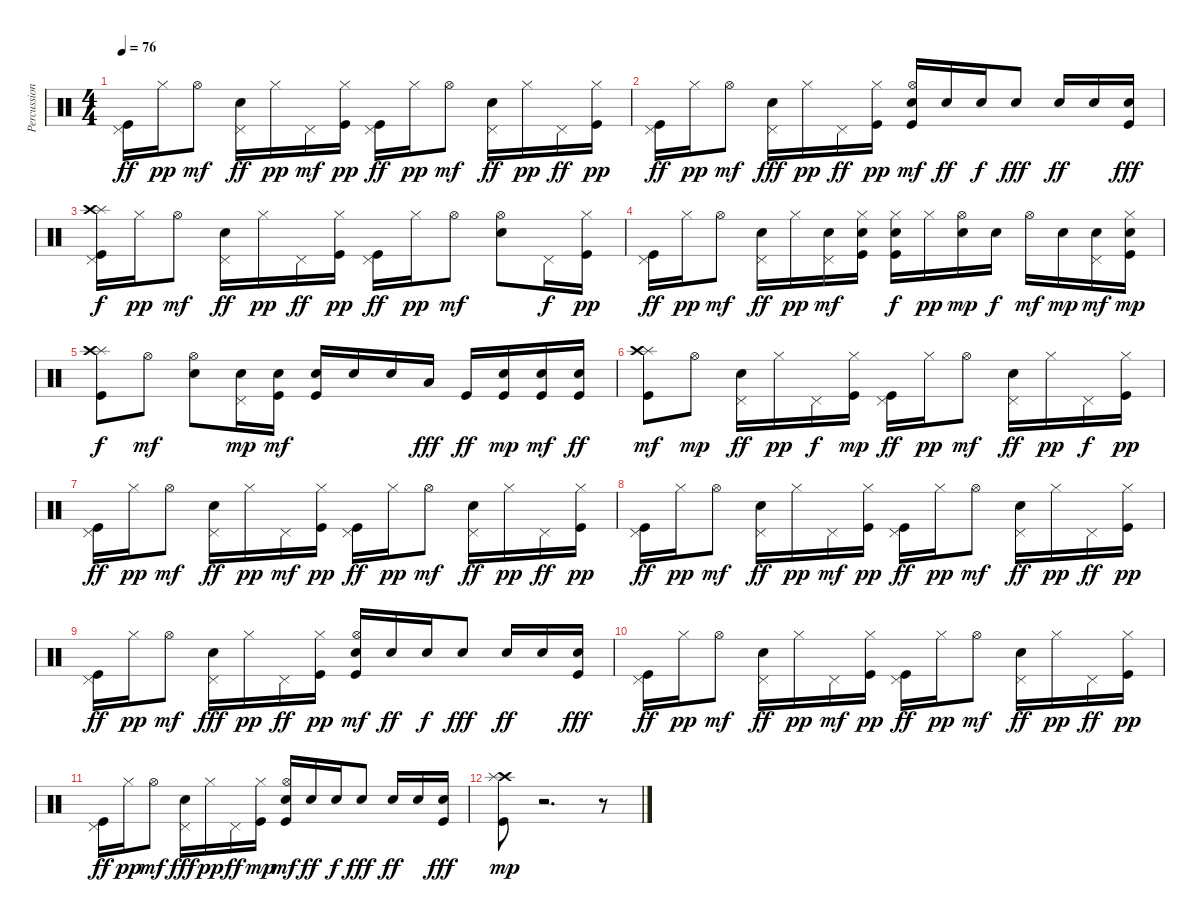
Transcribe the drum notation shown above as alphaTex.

\track ("Percussion" "Percussion") {instrument percussion}
\staff {score}
\articulation defaults
\ts (4 4)
\tempo 76
\clef neutral
\ks c
("Pedal Hi-Hat (hit)" "Kick (hit)").16{dy ff} "Hi-Hat (closed)".16{dy pp} "Hi-Hat (open)".8{dy mf} ("Pedal Hi-Hat (hit)" "Snare (hit) 2").16{dy ff} "Hi-Hat (closed)".16{dy pp} "Pedal Hi-Hat (hit)".16{dy mf} ("Hi-Hat (closed)" "Kick (hit)").16{dy pp} ("Pedal Hi-Hat (hit)" "Kick (hit)").16{dy ff} "Hi-Hat (closed)".16{dy pp} "Hi-Hat (open)".8{dy mf} ("Pedal Hi-Hat (hit)" "Snare (hit) 2").16{dy ff} "Hi-Hat (closed)".16{dy pp} "Pedal Hi-Hat (hit)".16{dy ff} ("Hi-Hat (closed)" "Kick (hit)").16{dy pp} |
("Pedal Hi-Hat (hit)" "Kick (hit)").16{dy ff} "Hi-Hat (closed)".16{dy pp} "Hi-Hat (open)".8{dy mf} ("Pedal Hi-Hat (hit)" "Snare (hit) 2").16{dy fff} "Hi-Hat (closed)".16{dy pp} "Pedal Hi-Hat (hit)".16{dy ff} ("Hi-Hat (closed)" "Kick (hit)").16{dy pp} ("Hi-Hat (open)" "Snare (hit) 2" "Kick (hit)").16{dy mf} "Snare (hit) 2".16{dy ff} "Snare (hit) 2".16{dy f} "Snare (hit) 2".8{dy fff} "Snare (hit) 2".16{dy ff} "Snare (hit) 2".16 ("Snare (hit) 2" "Kick (hit)").16{dy fff} |
("Splash (hit)" "Crash high (hit)" "Pedal Hi-Hat (hit)" "Kick (hit)").16{dy f} "Hi-Hat (closed)".16{dy pp} "Hi-Hat (open)".8{dy mf} ("Pedal Hi-Hat (hit)" "Snare (hit) 2").16{dy ff} "Hi-Hat (closed)".16{dy pp} "Pedal Hi-Hat (hit)".16{dy ff} ("Hi-Hat (closed)" "Kick (hit)").16{dy pp} ("Pedal Hi-Hat (hit)" "Kick (hit)").16{dy ff} "Hi-Hat (closed)".16{dy pp} "Hi-Hat (open)".8{dy mf} ("Hi-Hat (open)" "Snare (hit) 2").8 "Pedal Hi-Hat (hit)".16{dy f} ("Hi-Hat (closed)" "Kick (hit)").16{dy pp} |
("Pedal Hi-Hat (hit)" "Kick (hit)").16{dy ff} "Hi-Hat (closed)".16{dy pp} "Hi-Hat (open)".8{dy mf} ("Pedal Hi-Hat (hit)" "Snare (hit) 2").16{dy ff} "Hi-Hat (closed)".16{dy pp} ("Pedal Hi-Hat (hit)" "Snare (hit) 2").16{dy mf} ("Hi-Hat (closed)" "Snare (hit) 2" "Kick (hit)").16 ("Hi-Hat (closed)" "Snare (hit) 2" "Kick (hit)").16{dy f} "Hi-Hat (closed)".16{dy pp} ("Hi-Hat (open)" "Snare (hit) 2").16{dy mp} "Snare (hit) 2".16{dy f} "Hi-Hat (open)".16{dy mf} "Snare (hit) 2".16{dy mp} ("Pedal Hi-Hat (hit)" "Snare (hit) 2").16{dy mf} ("Hi-Hat (closed)" "Snare (hit) 2" "Kick (hit)").16{dy mp} |
("Splash (hit)" "Crash high (hit)" "Kick (hit)").8{dy f} "Hi-Hat (open)".8{dy mf} ("Hi-Hat (open)" "Snare (hit) 2").8 ("Pedal Hi-Hat (hit)" "Snare (hit) 2").16{dy mp} ("Snare (hit) 2" "Kick (hit)").16{dy mf} ("Snare (hit) 2" "Kick (hit)").16 "Snare (hit) 2".16 "Snare (hit) 2".16 "Low Tom (hit)".16{dy fff} "Kick (hit)".16{dy ff} ("Snare (hit) 2" "Kick (hit)").16{dy mp} ("Snare (hit) 2" "Kick (hit)").16{dy mf} ("Snare (hit) 2" "Kick (hit)").16{dy ff} |
("Splash (hit)" "Crash high (hit)" "Kick (hit)").8{dy mf} "Hi-Hat (open)".8{dy mp} ("Pedal Hi-Hat (hit)" "Snare (hit) 2").16{dy ff} "Hi-Hat (closed)".16{dy pp} "Pedal Hi-Hat (hit)".16{dy f} ("Hi-Hat (closed)" "Kick (hit)").16{dy mp} ("Pedal Hi-Hat (hit)" "Kick (hit)").16{dy ff} "Hi-Hat (closed)".16{dy pp} "Hi-Hat (open)".8{dy mf} ("Pedal Hi-Hat (hit)" "Snare (hit) 2").16{dy ff} "Hi-Hat (closed)".16{dy pp} "Pedal Hi-Hat (hit)".16{dy f} ("Hi-Hat (closed)" "Kick (hit)").16{dy pp} |
("Pedal Hi-Hat (hit)" "Kick (hit)").16{dy ff} "Hi-Hat (closed)".16{dy pp} "Hi-Hat (open)".8{dy mf} ("Pedal Hi-Hat (hit)" "Snare (hit) 2").16{dy ff} "Hi-Hat (closed)".16{dy pp} "Pedal Hi-Hat (hit)".16{dy mf} ("Hi-Hat (closed)" "Kick (hit)").16{dy pp} ("Pedal Hi-Hat (hit)" "Kick (hit)").16{dy ff} "Hi-Hat (closed)".16{dy pp} "Hi-Hat (open)".8{dy mf} ("Pedal Hi-Hat (hit)" "Snare (hit) 2").16{dy ff} "Hi-Hat (closed)".16{dy pp} "Pedal Hi-Hat (hit)".16{dy ff} ("Hi-Hat (closed)" "Kick (hit)").16{dy pp} |
("Pedal Hi-Hat (hit)" "Kick (hit)").16{dy ff} "Hi-Hat (closed)".16{dy pp} "Hi-Hat (open)".8{dy mf} ("Pedal Hi-Hat (hit)" "Snare (hit) 2").16{dy ff} "Hi-Hat (closed)".16{dy pp} "Pedal Hi-Hat (hit)".16{dy mf} ("Hi-Hat (closed)" "Kick (hit)").16{dy pp} ("Pedal Hi-Hat (hit)" "Kick (hit)").16{dy ff} "Hi-Hat (closed)".16{dy pp} "Hi-Hat (open)".8{dy mf} ("Pedal Hi-Hat (hit)" "Snare (hit) 2").16{dy ff} "Hi-Hat (closed)".16{dy pp} "Pedal Hi-Hat (hit)".16{dy ff} ("Hi-Hat (closed)" "Kick (hit)").16{dy pp} |
("Pedal Hi-Hat (hit)" "Kick (hit)").16{dy ff} "Hi-Hat (closed)".16{dy pp} "Hi-Hat (open)".8{dy mf} ("Pedal Hi-Hat (hit)" "Snare (hit) 2").16{dy fff} "Hi-Hat (closed)".16{dy pp} "Pedal Hi-Hat (hit)".16{dy ff} ("Hi-Hat (closed)" "Kick (hit)").16{dy pp} ("Hi-Hat (open)" "Snare (hit) 2" "Kick (hit)").16{dy mf} "Snare (hit) 2".16{dy ff} "Snare (hit) 2".16{dy f} "Snare (hit) 2".8{dy fff} "Snare (hit) 2".16{dy ff} "Snare (hit) 2".16 ("Snare (hit) 2" "Kick (hit)").16{dy fff} |
("Pedal Hi-Hat (hit)" "Kick (hit)").16{dy ff} "Hi-Hat (closed)".16{dy pp} "Hi-Hat (open)".8{dy mf} ("Pedal Hi-Hat (hit)" "Snare (hit) 2").16{dy ff} "Hi-Hat (closed)".16{dy pp} "Pedal Hi-Hat (hit)".16{dy mf} ("Hi-Hat (closed)" "Kick (hit)").16{dy pp} ("Pedal Hi-Hat (hit)" "Kick (hit)").16{dy ff} "Hi-Hat (closed)".16{dy pp} "Hi-Hat (open)".8{dy mf} ("Pedal Hi-Hat (hit)" "Snare (hit) 2").16{dy ff} "Hi-Hat (closed)".16{dy pp} "Pedal Hi-Hat (hit)".16{dy ff} ("Hi-Hat (closed)" "Kick (hit)").16{dy pp} |
("Pedal Hi-Hat (hit)" "Kick (hit)").16{dy ff} "Hi-Hat (closed)".16{dy pp} "Hi-Hat (open)".8{dy mf} ("Pedal Hi-Hat (hit)" "Snare (hit) 2").16{dy fff} "Hi-Hat (closed)".16{dy pp} "Pedal Hi-Hat (hit)".16{dy ff} ("Hi-Hat (closed)" "Kick (hit)").16{dy mp} ("Hi-Hat (open)" "Snare (hit) 2" "Kick (hit)").16{dy mf} "Snare (hit) 2".16{dy ff} "Snare (hit) 2".16{dy f} "Snare (hit) 2".8{dy fff} "Snare (hit) 2".16{dy ff} "Snare (hit) 2".16 ("Snare (hit) 2" "Kick (hit)").16{dy fff} |
("Kick (hit)" "Crash high (hit)" "Splash (hit)").8{dy mp} r.2{d} r.8
